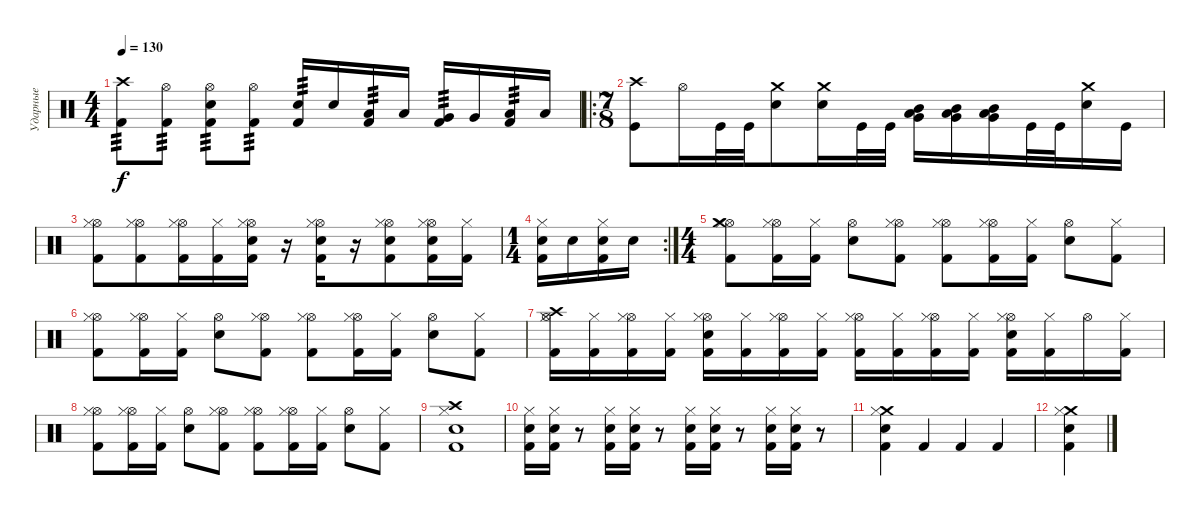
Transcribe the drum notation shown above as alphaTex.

\track ("Ударные" "Ударные") {instrument percussion}
\staff {score}
\articulation defaults
\ts (4 4)
\tempo 130
\clef neutral
\ks c
("Crash high (hit)" "Kick (hit) 2").8{tp 3 dy f} ("Hi-Hat (open)" "Kick (hit) 2").8{tp 3} ("Hi-Hat (open)" "Snare (hit) 2" "Kick (hit) 2").8{tp 3} ("Hi-Hat (open)" "Kick (hit) 2").8{tp 3} ("Electric Snare (hit)" "Kick (hit) 2").16{tp 3} "Electric Snare (hit)".16 ("Low Tom (hit)" "Kick (hit) 2").16{tp 3} "Low Tom (hit)".16 ("Very Low Tom (hit)" "Kick (hit) 2").16{tp 3} "Very Low Tom (hit)".16 ("Low Floor Tom (hit)" "Kick (hit) 2").16{tp 3} "Low Floor Tom (hit)".16 |
\ro
\ts (7 8)
("Crash high (hit)" "Kick (hit)").8 "Hi-Hat (open)".16 "Kick (hit)".32 "Kick (hit)".32 ("Crash medium (hit)" "Electric Snare (hit)").8 ("Crash medium (hit)" "Electric Snare (hit)").16 "Kick (hit)".32 "Kick (hit)".32 ("Mid Tom (hit)" "Very Low Tom (hit)" "Low Floor Tom (hit)").16 ("Mid Tom (hit)" "Very Low Tom (hit)" "Low Floor Tom (hit)").16 ("Mid Tom (hit)" "Very Low Tom (hit)" "Low Floor Tom (hit)").16 "Kick (hit)".32 "Kick (hit)".32 ("Crash medium (hit)" "Electric Snare (hit)").16 "Kick (hit)".16 |
("Hi-Hat (open)" "Hi-Hat (closed)" "Kick (hit) 2").8 ("Hi-Hat (open)" "Hi-Hat (closed)" "Kick (hit) 2").8 ("Hi-Hat (open)" "Hi-Hat (closed)" "Kick (hit) 2").16 ("Hi-Hat (closed)" "Kick (hit) 2").16 ("Hi-Hat (open)" "Snare (hit) 2" "Hi-Hat (closed)" "Kick (hit) 2").16 r.16 ("Hi-Hat (open)" "Snare (hit) 2" "Hi-Hat (closed)" "Kick (hit) 2").16 r.16 ("Hi-Hat (open)" "Snare (hit) 2" "Hi-Hat (closed)" "Kick (hit) 2").8 ("Hi-Hat (open)" "Snare (hit) 2" "Hi-Hat (closed)" "Kick (hit) 2").16 ("Hi-Hat (closed)" "Kick (hit) 2").16 |
\rc 2
\ts (1 4)
("Snare (hit) 2" "Kick (hit) 2" "Hi-Hat (closed)").16 "Snare (hit) 2".16 ("Snare (hit) 2" "Kick (hit) 2" "Hi-Hat (closed)").16 "Snare (hit) 2".16 |
\ts (4 4)
("Hi-Hat (open)" "Crash medium (hit)" "Hi-Hat (closed)" "Kick (hit) 2").8 ("Hi-Hat (open)" "Hi-Hat (closed)" "Kick (hit) 2").16 ("Hi-Hat (closed)" "Kick (hit) 2").16 ("Hi-Hat (open)" "Snare (hit) 2").8 ("Hi-Hat (open)" "Hi-Hat (closed)" "Kick (hit) 2").8 ("Hi-Hat (open)" "Hi-Hat (closed)" "Kick (hit) 2").8 ("Hi-Hat (open)" "Hi-Hat (closed)" "Kick (hit) 2").16 ("Hi-Hat (closed)" "Kick (hit) 2").16 ("Hi-Hat (open)" "Snare (hit) 2").8 ("Hi-Hat (closed)" "Kick (hit) 2").8 |
("Hi-Hat (open)" "Hi-Hat (closed)" "Kick (hit) 2").8 ("Hi-Hat (open)" "Hi-Hat (closed)" "Kick (hit) 2").16 ("Hi-Hat (closed)" "Kick (hit) 2").16 ("Hi-Hat (open)" "Snare (hit) 2").8 ("Hi-Hat (open)" "Hi-Hat (closed)" "Kick (hit) 2").8 ("Hi-Hat (open)" "Hi-Hat (closed)" "Kick (hit) 2").8 ("Hi-Hat (open)" "Hi-Hat (closed)" "Kick (hit) 2").16 ("Hi-Hat (closed)" "Kick (hit) 2").16 ("Hi-Hat (open)" "Snare (hit) 2").8 ("Hi-Hat (closed)" "Kick (hit) 2").8 |
("Hi-Hat (open)" "Crash high (hit)" "Hi-Hat (closed)" "Kick (hit) 2").16 ("Hi-Hat (closed)" "Kick (hit) 2").16 ("Hi-Hat (open)" "Hi-Hat (closed)" "Kick (hit) 2").16 ("Hi-Hat (closed)" "Kick (hit) 2").16 ("Hi-Hat (open)" "Snare (hit) 2" "Hi-Hat (closed)" "Kick (hit) 2").16 ("Hi-Hat (closed)" "Kick (hit) 2").16 ("Hi-Hat (open)" "Hi-Hat (closed)" "Kick (hit) 2").16 ("Hi-Hat (closed)" "Kick (hit) 2").16 ("Hi-Hat (open)" "Hi-Hat (closed)" "Kick (hit) 2").16 ("Hi-Hat (closed)" "Kick (hit) 2").16 ("Hi-Hat (open)" "Hi-Hat (closed)" "Kick (hit) 2").16 ("Hi-Hat (closed)" "Kick (hit) 2").16 ("Hi-Hat (open)" "Snare (hit) 2" "Hi-Hat (closed)" "Kick (hit) 2").16 ("Hi-Hat (closed)" "Kick (hit) 2").16 "Hi-Hat (open)".16 ("Hi-Hat (closed)" "Kick (hit) 2").16 |
("Hi-Hat (open)" "Hi-Hat (closed)" "Kick (hit) 2").8 ("Hi-Hat (open)" "Hi-Hat (closed)" "Kick (hit) 2").16 ("Hi-Hat (closed)" "Kick (hit) 2").16 ("Hi-Hat (open)" "Snare (hit) 2").8 ("Hi-Hat (open)" "Hi-Hat (closed)" "Kick (hit) 2").8 ("Hi-Hat (open)" "Hi-Hat (closed)" "Kick (hit) 2").8 ("Hi-Hat (open)" "Hi-Hat (closed)" "Kick (hit) 2").16 ("Hi-Hat (closed)" "Kick (hit) 2").16 ("Hi-Hat (open)" "Snare (hit) 2").8 ("Hi-Hat (closed)" "Kick (hit) 2").8 |
("Crash high (hit)" "Electric Snare (hit)" "Hi-Hat (closed)" "Kick (hit) 2").1 |
("Electric Snare (hit)" "Hi-Hat (closed)" "Kick (hit) 2").16 ("Electric Snare (hit)" "Hi-Hat (closed)" "Kick (hit) 2").16 r.8 ("Electric Snare (hit)" "Hi-Hat (closed)" "Kick (hit) 2").16 ("Electric Snare (hit)" "Hi-Hat (closed)" "Kick (hit) 2").16 r.8 ("Electric Snare (hit)" "Hi-Hat (closed)" "Kick (hit) 2").16 ("Electric Snare (hit)" "Hi-Hat (closed)" "Kick (hit) 2").16 r.8 ("Electric Snare (hit)" "Hi-Hat (closed)" "Kick (hit) 2").16 ("Electric Snare (hit)" "Hi-Hat (closed)" "Kick (hit) 2").16 r.8 |
("Crash medium (hit)" "Electric Snare (hit)" "Hi-Hat (closed)" "Kick (hit) 2").4 "Kick (hit) 2".4 "Kick (hit) 2".4 "Kick (hit) 2".4 |
("Crash medium (hit)" "Electric Snare (hit)" "Hi-Hat (closed)" "Kick (hit) 2").4
